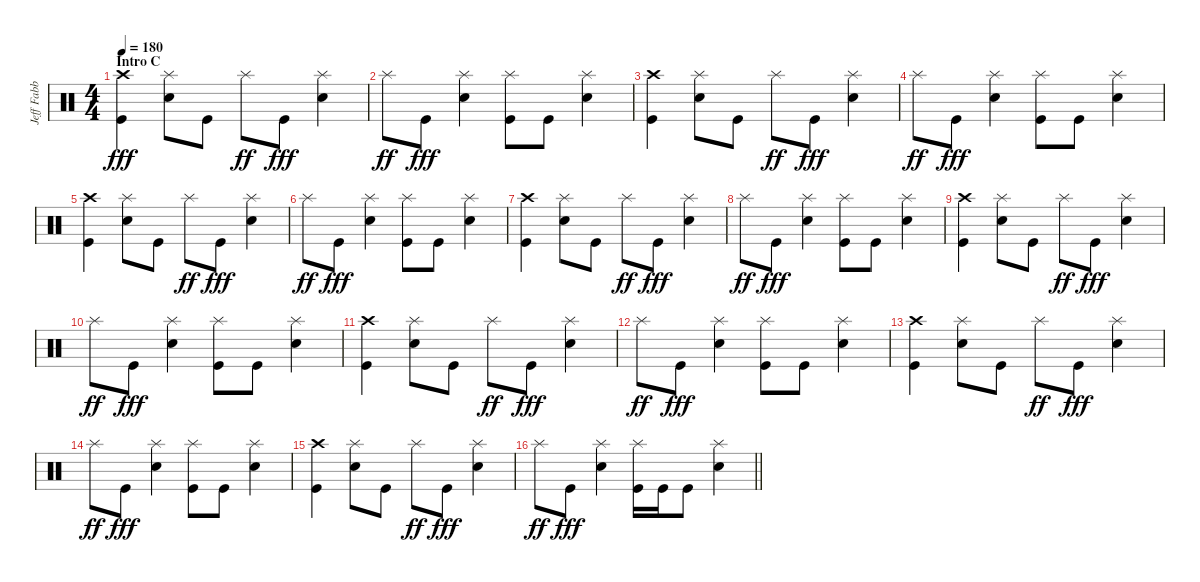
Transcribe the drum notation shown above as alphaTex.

\track ("Jeff Fabb (Drums)" "Jeff Fabb ") {instrument percussion}
\staff {score}
\articulation defaults
\ts (4 4)
\section ("" "Intro C")
\tempo 180
\clef neutral
\ks c
("Crash high (hit)" "Kick (hit)").4{dy fff} ("Splash (hit)" "Electric Snare (hit)").8 "Kick (hit)".8 "Splash (hit)".8{dy ff} "Kick (hit)".8{dy fff} ("Splash (hit)" "Electric Snare (hit)").4 |
"Splash (hit)".8{dy ff} "Kick (hit)".8{dy fff} ("Splash (hit)" "Electric Snare (hit)").4 ("Splash (hit)" "Kick (hit)").8 "Kick (hit)".8 ("Splash (hit)" "Electric Snare (hit)").4 |
("Crash high (hit)" "Kick (hit)").4 ("Splash (hit)" "Electric Snare (hit)").8 "Kick (hit)".8 "Splash (hit)".8{dy ff} "Kick (hit)".8{dy fff} ("Splash (hit)" "Electric Snare (hit)").4 |
"Splash (hit)".8{dy ff} "Kick (hit)".8{dy fff} ("Splash (hit)" "Electric Snare (hit)").4 ("Splash (hit)" "Kick (hit)").8 "Kick (hit)".8 ("Splash (hit)" "Electric Snare (hit)").4 |
("Crash high (hit)" "Kick (hit)").4 ("Splash (hit)" "Electric Snare (hit)").8 "Kick (hit)".8 "Splash (hit)".8{dy ff} "Kick (hit)".8{dy fff} ("Splash (hit)" "Electric Snare (hit)").4 |
"Splash (hit)".8{dy ff} "Kick (hit)".8{dy fff} ("Splash (hit)" "Electric Snare (hit)").4 ("Splash (hit)" "Kick (hit)").8 "Kick (hit)".8 ("Splash (hit)" "Electric Snare (hit)").4 |
("Crash high (hit)" "Kick (hit)").4 ("Splash (hit)" "Electric Snare (hit)").8 "Kick (hit)".8 "Splash (hit)".8{dy ff} "Kick (hit)".8{dy fff} ("Splash (hit)" "Electric Snare (hit)").4 |
"Splash (hit)".8{dy ff} "Kick (hit)".8{dy fff} ("Splash (hit)" "Electric Snare (hit)").4 ("Splash (hit)" "Kick (hit)").8 "Kick (hit)".8 ("Splash (hit)" "Electric Snare (hit)").4 |
("Crash high (hit)" "Kick (hit)").4 ("Splash (hit)" "Electric Snare (hit)").8 "Kick (hit)".8 "Splash (hit)".8{dy ff} "Kick (hit)".8{dy fff} ("Splash (hit)" "Electric Snare (hit)").4 |
"Splash (hit)".8{dy ff} "Kick (hit)".8{dy fff} ("Splash (hit)" "Electric Snare (hit)").4 ("Splash (hit)" "Kick (hit)").8 "Kick (hit)".8 ("Splash (hit)" "Electric Snare (hit)").4 |
("Crash high (hit)" "Kick (hit)").4 ("Splash (hit)" "Electric Snare (hit)").8 "Kick (hit)".8 "Splash (hit)".8{dy ff} "Kick (hit)".8{dy fff} ("Splash (hit)" "Electric Snare (hit)").4 |
"Splash (hit)".8{dy ff} "Kick (hit)".8{dy fff} ("Splash (hit)" "Electric Snare (hit)").4 ("Splash (hit)" "Kick (hit)").8 "Kick (hit)".8 ("Splash (hit)" "Electric Snare (hit)").4 |
("Crash high (hit)" "Kick (hit)").4 ("Splash (hit)" "Electric Snare (hit)").8 "Kick (hit)".8 "Splash (hit)".8{dy ff} "Kick (hit)".8{dy fff} ("Splash (hit)" "Electric Snare (hit)").4 |
"Splash (hit)".8{dy ff} "Kick (hit)".8{dy fff} ("Splash (hit)" "Electric Snare (hit)").4 ("Splash (hit)" "Kick (hit)").8 "Kick (hit)".8 ("Splash (hit)" "Electric Snare (hit)").4 |
("Crash high (hit)" "Kick (hit)").4 ("Splash (hit)" "Electric Snare (hit)").8 "Kick (hit)".8 "Splash (hit)".8{dy ff} "Kick (hit)".8{dy fff} ("Splash (hit)" "Electric Snare (hit)").4 |
\barLineRight lightlight "Splash (hit)".8{dy ff} "Kick (hit)".8{dy fff}
("Splash (hit)" "Electric Snare (hit)").4 ("Splash (hit)" "Kick (hit)").16 "Kick (hit)".16 "Kick (hit)".8 ("Splash (hit)" "Electric Snare (hit)").4
